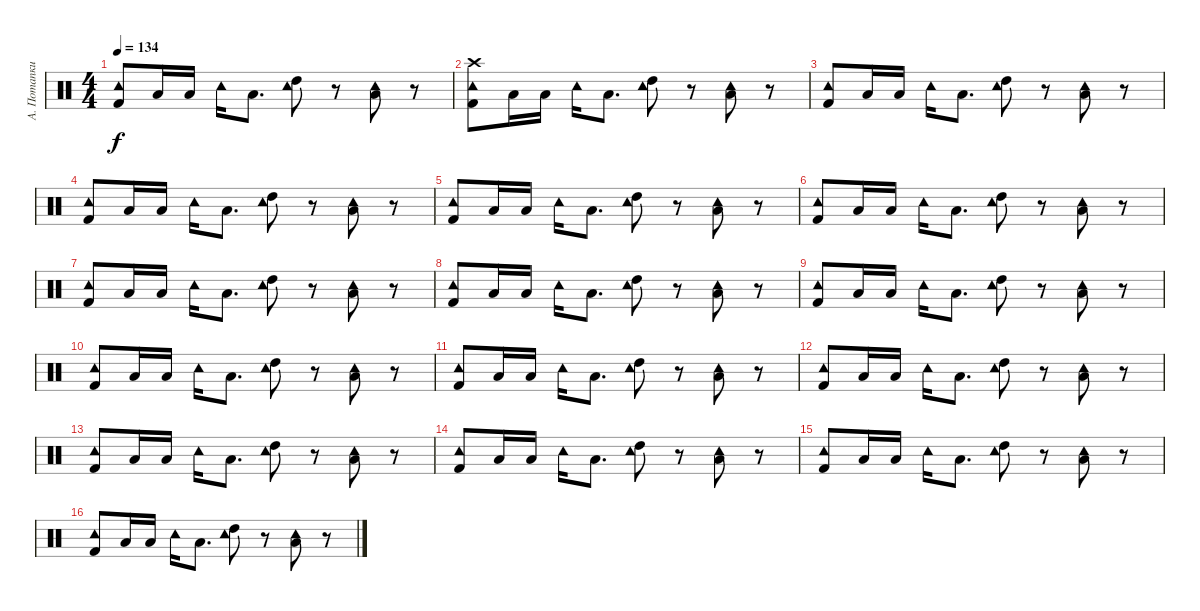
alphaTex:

\track ("А. Потапкин" "А. Потапки") {instrument percussion}
\staff {score}
\articulation defaults
\ts (4 4)
\tempo 134
\clef neutral
\ks c
("Tambourine (hit)" "Kick (hit) 2").8{dy f} "Low Tom (hit)".16 "Low Tom (hit)".16 "Tambourine (hit)".16 "Low Tom (hit)".8{d} ("Tambourine (hit)" "High Tom (hit)").8 r.8 ("Tambourine (hit)" "Low Tom (hit)").8 r.8 |
("Crash high (hit)" "Tambourine (hit)" "Kick (hit) 2").8 "Low Tom (hit)".16 "Low Tom (hit)".16 "Tambourine (hit)".16 "Low Tom (hit)".8{d} ("Tambourine (hit)" "High Tom (hit)").8 r.8 ("Tambourine (hit)" "Low Tom (hit)").8 r.8 |
("Tambourine (hit)" "Kick (hit) 2").8 "Low Tom (hit)".16 "Low Tom (hit)".16 "Tambourine (hit)".16 "Low Tom (hit)".8{d} ("Tambourine (hit)" "High Tom (hit)").8 r.8 ("Tambourine (hit)" "Low Tom (hit)").8 r.8 |
("Tambourine (hit)" "Kick (hit) 2").8 "Low Tom (hit)".16 "Low Tom (hit)".16 "Tambourine (hit)".16 "Low Tom (hit)".8{d} ("Tambourine (hit)" "High Tom (hit)").8 r.8 ("Tambourine (hit)" "Low Tom (hit)").8 r.8 |
("Tambourine (hit)" "Kick (hit) 2").8 "Low Tom (hit)".16 "Low Tom (hit)".16 "Tambourine (hit)".16 "Low Tom (hit)".8{d} ("Tambourine (hit)" "High Tom (hit)").8 r.8 ("Tambourine (hit)" "Low Tom (hit)").8 r.8 |
("Tambourine (hit)" "Kick (hit) 2").8 "Low Tom (hit)".16 "Low Tom (hit)".16 "Tambourine (hit)".16 "Low Tom (hit)".8{d} ("Tambourine (hit)" "High Tom (hit)").8 r.8 ("Tambourine (hit)" "Low Tom (hit)").8 r.8 |
("Tambourine (hit)" "Kick (hit) 2").8 "Low Tom (hit)".16 "Low Tom (hit)".16 "Tambourine (hit)".16 "Low Tom (hit)".8{d} ("Tambourine (hit)" "High Tom (hit)").8 r.8 ("Tambourine (hit)" "Low Tom (hit)").8 r.8 |
("Tambourine (hit)" "Kick (hit) 2").8 "Low Tom (hit)".16 "Low Tom (hit)".16 "Tambourine (hit)".16 "Low Tom (hit)".8{d} ("Tambourine (hit)" "High Tom (hit)").8 r.8 ("Tambourine (hit)" "Low Tom (hit)").8 r.8 |
("Tambourine (hit)" "Kick (hit) 2").8 "Low Tom (hit)".16 "Low Tom (hit)".16 "Tambourine (hit)".16 "Low Tom (hit)".8{d} ("Tambourine (hit)" "High Tom (hit)").8 r.8 ("Tambourine (hit)" "Low Tom (hit)").8 r.8 |
("Tambourine (hit)" "Kick (hit) 2").8 "Low Tom (hit)".16 "Low Tom (hit)".16 "Tambourine (hit)".16 "Low Tom (hit)".8{d} ("Tambourine (hit)" "High Tom (hit)").8 r.8 ("Tambourine (hit)" "Low Tom (hit)").8 r.8 |
("Tambourine (hit)" "Kick (hit) 2").8 "Low Tom (hit)".16 "Low Tom (hit)".16 "Tambourine (hit)".16 "Low Tom (hit)".8{d} ("Tambourine (hit)" "High Tom (hit)").8 r.8 ("Tambourine (hit)" "Low Tom (hit)").8 r.8 |
("Tambourine (hit)" "Kick (hit) 2").8 "Low Tom (hit)".16 "Low Tom (hit)".16 "Tambourine (hit)".16 "Low Tom (hit)".8{d} ("Tambourine (hit)" "High Tom (hit)").8 r.8 ("Tambourine (hit)" "Low Tom (hit)").8 r.8 |
("Tambourine (hit)" "Kick (hit) 2").8 "Low Tom (hit)".16 "Low Tom (hit)".16 "Tambourine (hit)".16 "Low Tom (hit)".8{d} ("Tambourine (hit)" "High Tom (hit)").8 r.8 ("Tambourine (hit)" "Low Tom (hit)").8 r.8 |
("Tambourine (hit)" "Kick (hit) 2").8 "Low Tom (hit)".16 "Low Tom (hit)".16 "Tambourine (hit)".16 "Low Tom (hit)".8{d} ("Tambourine (hit)" "High Tom (hit)").8 r.8 ("Tambourine (hit)" "Low Tom (hit)").8 r.8 |
("Tambourine (hit)" "Kick (hit) 2").8 "Low Tom (hit)".16 "Low Tom (hit)".16 "Tambourine (hit)".16 "Low Tom (hit)".8{d} ("Tambourine (hit)" "High Tom (hit)").8 r.8 ("Tambourine (hit)" "Low Tom (hit)").8 r.8 |
("Tambourine (hit)" "Kick (hit) 2").8 "Low Tom (hit)".16 "Low Tom (hit)".16 "Tambourine (hit)".16 "Low Tom (hit)".8{d} ("Tambourine (hit)" "High Tom (hit)").8 r.8 ("Tambourine (hit)" "Low Tom (hit)").8 r.8
